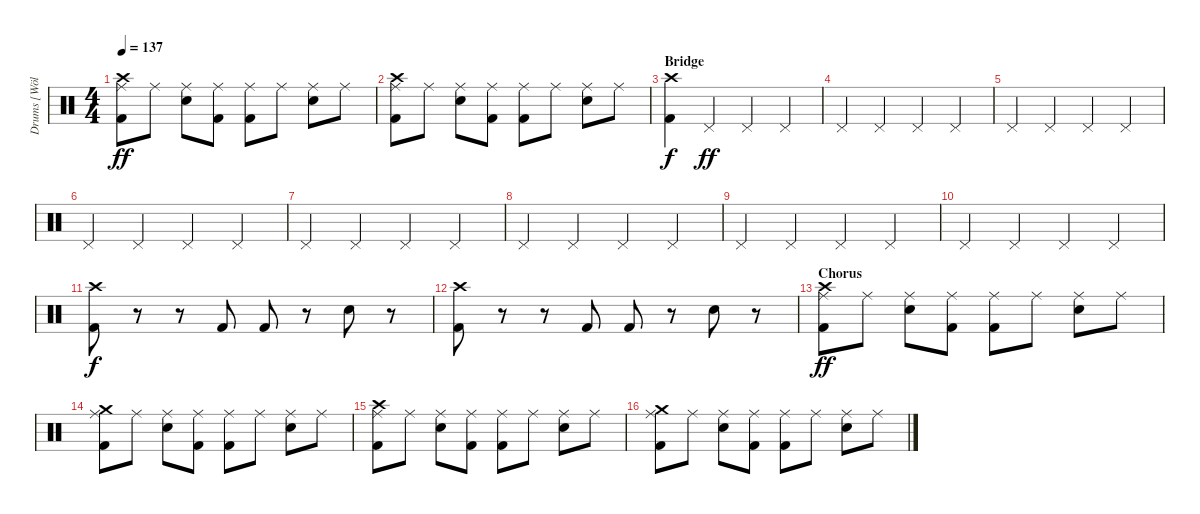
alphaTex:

\track ("Drums [Wölli]" "Drums [Wöl") {instrument percussion}
\staff {score}
\articulation defaults
\ts (4 4)
\tempo 137
\clef neutral
\ks c
("Ride (middle)" "Kick (hit) 2" "Crash high (hit)").8{dy ff} "Ride (middle)".8 ("Ride (middle)" "Snare (hit) 2").8 ("Ride (middle)" "Kick (hit) 2").8 ("Ride (middle)" "Kick (hit) 2").8 "Ride (middle)".8 ("Ride (middle)" "Snare (hit) 2").8 "Ride (middle)".8 |
("Ride (middle)" "Kick (hit) 2" "Crash high (hit)").8 "Ride (middle)".8 ("Ride (middle)" "Snare (hit) 2").8 ("Ride (middle)" "Kick (hit) 2").8 ("Ride (middle)" "Kick (hit) 2").8 "Ride (middle)".8 ("Ride (middle)" "Snare (hit) 2").8 "Ride (middle)".8 |
\section ("" "Bridge")
("Kick (hit) 2" "Crash high (hit)").4{dy f} "Pedal Hi-Hat (hit)".4{dy ff} "Pedal Hi-Hat (hit)".4 "Pedal Hi-Hat (hit)".4 |
"Pedal Hi-Hat (hit)".4 "Pedal Hi-Hat (hit)".4 "Pedal Hi-Hat (hit)".4 "Pedal Hi-Hat (hit)".4 |
"Pedal Hi-Hat (hit)".4 "Pedal Hi-Hat (hit)".4 "Pedal Hi-Hat (hit)".4 "Pedal Hi-Hat (hit)".4 |
"Pedal Hi-Hat (hit)".4 "Pedal Hi-Hat (hit)".4 "Pedal Hi-Hat (hit)".4 "Pedal Hi-Hat (hit)".4 |
"Pedal Hi-Hat (hit)".4 "Pedal Hi-Hat (hit)".4 "Pedal Hi-Hat (hit)".4 "Pedal Hi-Hat (hit)".4 |
"Pedal Hi-Hat (hit)".4 "Pedal Hi-Hat (hit)".4 "Pedal Hi-Hat (hit)".4 "Pedal Hi-Hat (hit)".4 |
"Pedal Hi-Hat (hit)".4 "Pedal Hi-Hat (hit)".4 "Pedal Hi-Hat (hit)".4 "Pedal Hi-Hat (hit)".4 |
"Pedal Hi-Hat (hit)".4 "Pedal Hi-Hat (hit)".4 "Pedal Hi-Hat (hit)".4 "Pedal Hi-Hat (hit)".4 |
("Kick (hit) 2" "Crash high (hit)").8{dy f} r.8 r.8 "Kick (hit) 2".8 "Kick (hit) 2".8 r.8 "Snare (hit) 2".8 r.8 |
("Kick (hit) 2" "Crash high (hit)").8 r.8 r.8 "Kick (hit) 2".8 "Kick (hit) 2".8 r.8 "Snare (hit) 2".8 r.8 |
\section ("" "Chorus")
("Ride (middle)" "Kick (hit) 2" "Crash high (hit)").8{dy ff} "Ride (middle)".8 ("Ride (middle)" "Snare (hit) 2").8 ("Ride (middle)" "Kick (hit) 2").8 ("Ride (middle)" "Kick (hit) 2").8 "Ride (middle)".8 ("Ride (middle)" "Snare (hit) 2").8 "Ride (middle)".8 |
("Ride (middle)" "Kick (hit) 2" "Crash medium (hit)").8 "Ride (middle)".8 ("Ride (middle)" "Snare (hit) 2").8 ("Ride (middle)" "Kick (hit) 2").8 ("Ride (middle)" "Kick (hit) 2").8 "Ride (middle)".8 ("Ride (middle)" "Snare (hit) 2").8 "Ride (middle)".8 |
("Ride (middle)" "Kick (hit) 2" "Crash high (hit)").8 "Ride (middle)".8 ("Ride (middle)" "Snare (hit) 2").8 ("Ride (middle)" "Kick (hit) 2").8 ("Ride (middle)" "Kick (hit) 2").8 "Ride (middle)".8 ("Ride (middle)" "Snare (hit) 2").8 "Ride (middle)".8 |
("Ride (middle)" "Kick (hit) 2" "Crash medium (hit)").8 "Ride (middle)".8 ("Ride (middle)" "Snare (hit) 2").8 ("Ride (middle)" "Kick (hit) 2").8 ("Ride (middle)" "Kick (hit) 2").8 "Ride (middle)".8 ("Ride (middle)" "Snare (hit) 2").8 "Ride (middle)".8
